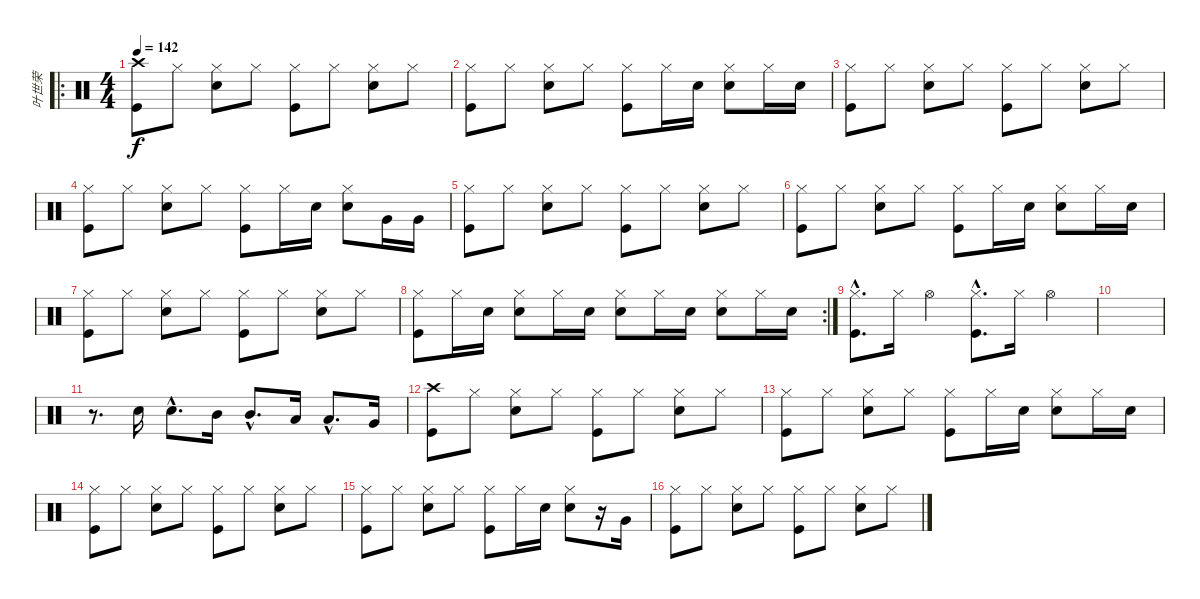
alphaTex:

\track ("叶世荣" "叶世荣") {instrument percussion}
\staff {score}
\articulation defaults
\ro
\ts (4 4)
\tempo 142
\clef neutral
\ks c
("Crash high (hit)" "Kick (hit)").8{dy f} "Hi-Hat (closed)".8 ("Hi-Hat (closed)" "Snare (hit) 2").8 "Hi-Hat (closed)".8 ("Hi-Hat (closed)" "Kick (hit)").8 "Hi-Hat (closed)".8 ("Hi-Hat (closed)" "Snare (hit) 2").8 "Hi-Hat (closed)".8 |
("Hi-Hat (closed)" "Kick (hit)").8 "Hi-Hat (closed)".8 ("Hi-Hat (closed)" "Snare (hit) 2").8 "Hi-Hat (closed)".8 ("Hi-Hat (closed)" "Kick (hit)").8 "Hi-Hat (closed)".16 "Snare (hit) 2".16 ("Hi-Hat (closed)" "Snare (hit) 2").8 "Hi-Hat (closed)".16 "Snare (hit) 2".16 |
("Hi-Hat (closed)" "Kick (hit)").8 "Hi-Hat (closed)".8 ("Hi-Hat (closed)" "Snare (hit) 2").8 "Hi-Hat (closed)".8 ("Hi-Hat (closed)" "Kick (hit)").8 "Hi-Hat (closed)".8 ("Hi-Hat (closed)" "Snare (hit) 2").8 "Hi-Hat (closed)".8 |
("Hi-Hat (closed)" "Kick (hit)").8 "Hi-Hat (closed)".8 ("Hi-Hat (closed)" "Snare (hit) 2").8 "Hi-Hat (closed)".8 ("Hi-Hat (closed)" "Kick (hit)").8 "Hi-Hat (closed)".16 "Snare (hit) 2".16 ("Hi-Hat (closed)" "Snare (hit) 2").8 "Very Low Tom (hit)".16 "Very Low Tom (hit)".16 |
("Hi-Hat (closed)" "Kick (hit)").8 "Hi-Hat (closed)".8 ("Hi-Hat (closed)" "Snare (hit) 2").8 "Hi-Hat (closed)".8 ("Hi-Hat (closed)" "Kick (hit)").8 "Hi-Hat (closed)".8 ("Hi-Hat (closed)" "Snare (hit) 2").8 "Hi-Hat (closed)".8 |
("Hi-Hat (closed)" "Kick (hit)").8 "Hi-Hat (closed)".8 ("Hi-Hat (closed)" "Snare (hit) 2").8 "Hi-Hat (closed)".8 ("Hi-Hat (closed)" "Kick (hit)").8 "Hi-Hat (closed)".16 "Snare (hit) 2".16 ("Hi-Hat (closed)" "Snare (hit) 2").8 "Hi-Hat (closed)".16 "Snare (hit) 2".16 |
("Hi-Hat (closed)" "Kick (hit)").8 "Hi-Hat (closed)".8 ("Hi-Hat (closed)" "Snare (hit) 2").8 "Hi-Hat (closed)".8 ("Hi-Hat (closed)" "Kick (hit)").8 "Hi-Hat (closed)".8 ("Hi-Hat (closed)" "Snare (hit) 2").8 "Hi-Hat (closed)".8 |
\rc 2
("Hi-Hat (closed)" "Kick (hit)").8 "Hi-Hat (closed)".16 "Snare (hit) 2".16 ("Hi-Hat (closed)" "Snare (hit) 2").8 "Hi-Hat (closed)".16 "Snare (hit) 2".16 ("Hi-Hat (closed)" "Snare (hit) 2").8 "Hi-Hat (closed)".16 "Snare (hit) 2".16 ("Hi-Hat (closed)" "Snare (hit) 2").8 "Hi-Hat (closed)".16 "Snare (hit) 2".16 |
("Hi-Hat (closed)"{hac} "Kick (hit)"{hac}).8{d} "Hi-Hat (closed)".16 "Hi-Hat (open)".4 ("Hi-Hat (closed)"{hac} "Kick (hit)"{hac}).8{d} "Hi-Hat (closed)".16 "Hi-Hat (open)".4 |
|
r.8{d} "Snare (hit) 2".16 "Snare (hit) 2"{hac}.8{d} "Mid Tom (hit)".16 "Mid Tom (hit)"{hac}.8{d} "Low Tom (hit)".16 "Low Tom (hit)"{hac}.8{d} "Very Low Tom (hit)".16 |
("Crash high (hit)" "Kick (hit)").8 "Hi-Hat (closed)".8 ("Hi-Hat (closed)" "Snare (hit) 2").8 "Hi-Hat (closed)".8 ("Hi-Hat (closed)" "Kick (hit)").8 "Hi-Hat (closed)".8 ("Hi-Hat (closed)" "Snare (hit) 2").8 "Hi-Hat (closed)".8 |
("Hi-Hat (closed)" "Kick (hit)").8 "Hi-Hat (closed)".8 ("Hi-Hat (closed)" "Snare (hit) 2").8 "Hi-Hat (closed)".8 ("Hi-Hat (closed)" "Kick (hit)").8 "Hi-Hat (closed)".16 "Snare (hit) 2".16 ("Hi-Hat (closed)" "Snare (hit) 2").8 "Hi-Hat (closed)".16 "Snare (hit) 2".16 |
("Hi-Hat (closed)" "Kick (hit)").8 "Hi-Hat (closed)".8 ("Hi-Hat (closed)" "Snare (hit) 2").8 "Hi-Hat (closed)".8 ("Hi-Hat (closed)" "Kick (hit)").8 "Hi-Hat (closed)".8 ("Hi-Hat (closed)" "Snare (hit) 2").8 "Hi-Hat (closed)".8 |
("Hi-Hat (closed)" "Kick (hit)").8 "Hi-Hat (closed)".8 ("Hi-Hat (closed)" "Snare (hit) 2").8 "Hi-Hat (closed)".8 ("Hi-Hat (closed)" "Kick (hit)").8 "Hi-Hat (closed)".16 "Snare (hit) 2".16 ("Hi-Hat (closed)" "Snare (hit) 2").8 r.16 "Very Low Tom (hit)".16 |
("Hi-Hat (closed)" "Kick (hit)").8 "Hi-Hat (closed)".8 ("Hi-Hat (closed)" "Snare (hit) 2").8 "Hi-Hat (closed)".8 ("Hi-Hat (closed)" "Kick (hit)").8 "Hi-Hat (closed)".8 ("Hi-Hat (closed)" "Snare (hit) 2").8 "Hi-Hat (closed)".8
